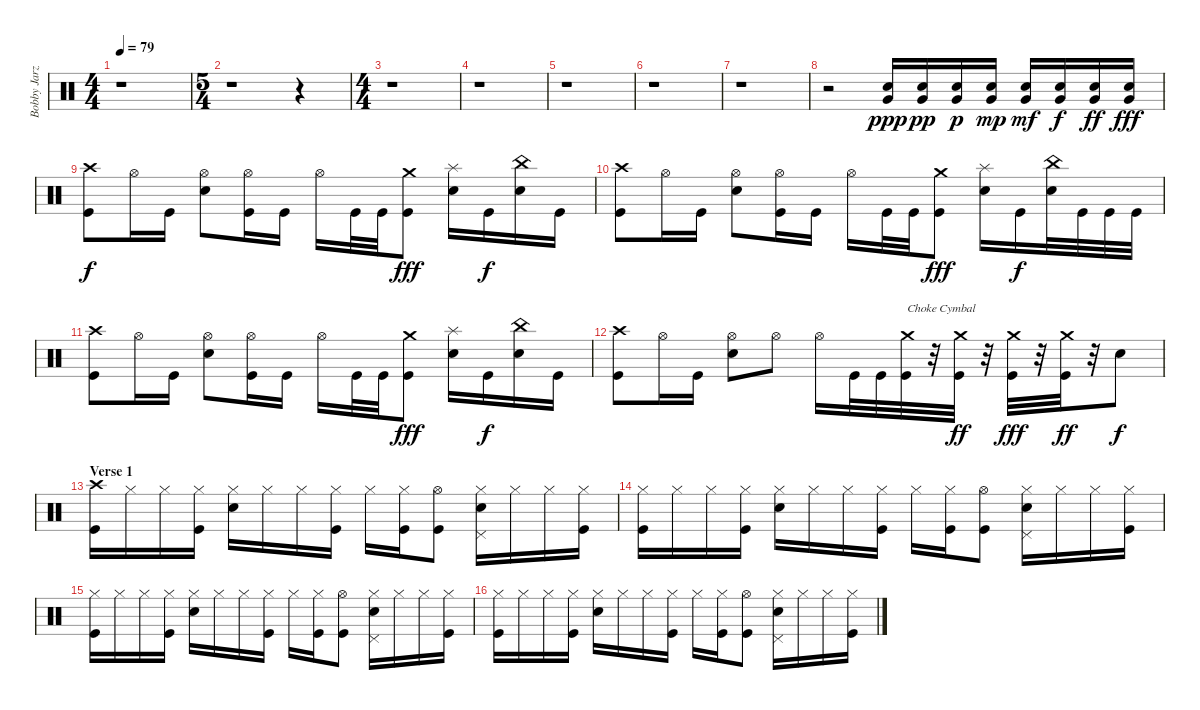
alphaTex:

\track ("Bobby Jarzombek" "Bobby Jarz") {instrument percussion}
\staff {score}
\articulation defaults
\ts (4 4)
\tempo 79
\clef neutral
\ks c
r.1{dy ppp} |
\ts (5 4)
r.1 r.4 |
\ts (4 4)
r.1 |
r.1 |
r.1 |
r.1 |
r.1 |
r.2 ("Very Low Tom (hit)" "Electric Snare (hit)").16 ("Very Low Tom (hit)" "Electric Snare (hit)").16{dy pp} ("Very Low Tom (hit)" "Electric Snare (hit)").16{dy p} ("Very Low Tom (hit)" "Electric Snare (hit)").16{dy mp} ("Very Low Tom (hit)" "Electric Snare (hit)").16{dy mf} ("Very Low Tom (hit)" "Electric Snare (hit)").16{dy f} ("Very Low Tom (hit)" "Electric Snare (hit)").16{dy ff} ("Very Low Tom (hit)" "Electric Snare (hit)").16{dy fff} |
("Crash high (hit)" "Kick (hit)").8{dy f} "Hi-Hat (open)".16 "Kick (hit)".16 ("Hi-Hat (open)" "Electric Snare (hit)").8 ("Hi-Hat (open)" "Kick (hit)").16 "Kick (hit)".16 "Hi-Hat (open)".16 "Kick (hit)".32 "Kick (hit)".32 ("Crash medium (hit)" "Kick (hit)").8{dy fff} ("Splash (hit)" "Electric Snare (hit)").16 "Kick (hit)".16{dy f} ("China (hit)" "Electric Snare (hit)").16 "Kick (hit)".16 |
("Crash high (hit)" "Kick (hit)").8 "Hi-Hat (open)".16 "Kick (hit)".16 ("Hi-Hat (open)" "Electric Snare (hit)").8 ("Hi-Hat (open)" "Kick (hit)").16 "Kick (hit)".16 "Hi-Hat (open)".16 "Kick (hit)".32 "Kick (hit)".32 ("Crash medium (hit)" "Kick (hit)").8{dy fff} ("Splash (hit)" "Electric Snare (hit)").16 "Kick (hit)".16{dy f} ("China (hit)" "Electric Snare (hit)").32 "Kick (hit)".32 "Kick (hit)".32 "Kick (hit)".32 |
("Crash high (hit)" "Kick (hit)").8 "Hi-Hat (open)".16 "Kick (hit)".16 ("Hi-Hat (open)" "Electric Snare (hit)").8 ("Hi-Hat (open)" "Kick (hit)").16 "Kick (hit)".16 "Hi-Hat (open)".16 "Kick (hit)".32 "Kick (hit)".32 ("Crash medium (hit)" "Kick (hit)").8{dy fff} ("Splash (hit)" "Electric Snare (hit)").16 "Kick (hit)".16{dy f} ("China (hit)" "Electric Snare (hit)").16 "Kick (hit)".16 |
("Crash high (hit)" "Kick (hit)").8 "Hi-Hat (open)".16 "Kick (hit)".16 ("Hi-Hat (open)" "Electric Snare (hit)").8 "Hi-Hat (open)".8 "Hi-Hat (open)".16 "Kick (hit)".32 "Kick (hit)".32 ("Crash medium (hit)" "Kick (hit)").32{txt "Choke Cymbal"} r.32{volume 0} ("Crash medium (hit)" "Kick (hit)").32{dy ff volume 13} r.32{volume 0} ("Crash medium (hit)" "Kick (hit)").32{dy fff volume 13} r.32{volume 0} ("Crash medium (hit)" "Kick (hit)").32{dy ff volume 13} r.32 "Electric Snare (hit)".8{dy f} |
\section ("" "Verse 1")
("Crash high (hit)" "Kick (hit)").16 "Hi-Hat (closed)".16 "Hi-Hat (closed)".16 ("Hi-Hat (closed)" "Kick (hit)").16 ("Hi-Hat (closed)" "Electric Snare (hit)").16 "Hi-Hat (closed)".16 "Hi-Hat (closed)".16 ("Hi-Hat (closed)" "Kick (hit)").16 "Hi-Hat (closed)".16 ("Hi-Hat (closed)" "Kick (hit)").16 ("Hi-Hat (open)" "Kick (hit)").8 ("Hi-Hat (closed)" "Electric Snare (hit)" "Pedal Hi-Hat (hit)").16 "Hi-Hat (closed)".16 "Hi-Hat (closed)".16 ("Hi-Hat (closed)" "Kick (hit)").16 |
("Hi-Hat (closed)" "Kick (hit)").16 "Hi-Hat (closed)".16 "Hi-Hat (closed)".16 ("Hi-Hat (closed)" "Kick (hit)").16 ("Hi-Hat (closed)" "Electric Snare (hit)").16 "Hi-Hat (closed)".16 "Hi-Hat (closed)".16 ("Hi-Hat (closed)" "Kick (hit)").16 "Hi-Hat (closed)".16 ("Hi-Hat (closed)" "Kick (hit)").16 ("Hi-Hat (open)" "Kick (hit)").8 ("Hi-Hat (closed)" "Electric Snare (hit)" "Pedal Hi-Hat (hit)").16 "Hi-Hat (closed)".16 "Hi-Hat (closed)".16 ("Hi-Hat (closed)" "Kick (hit)").16 |
("Hi-Hat (closed)" "Kick (hit)").16 "Hi-Hat (closed)".16 "Hi-Hat (closed)".16 ("Hi-Hat (closed)" "Kick (hit)").16 ("Hi-Hat (closed)" "Electric Snare (hit)").16 "Hi-Hat (closed)".16 "Hi-Hat (closed)".16 ("Hi-Hat (closed)" "Kick (hit)").16 "Hi-Hat (closed)".16 ("Hi-Hat (closed)" "Kick (hit)").16 ("Hi-Hat (open)" "Kick (hit)").8 ("Hi-Hat (closed)" "Electric Snare (hit)" "Pedal Hi-Hat (hit)").16 "Hi-Hat (closed)".16 "Hi-Hat (closed)".16 ("Hi-Hat (closed)" "Kick (hit)").16 |
("Hi-Hat (closed)" "Kick (hit)").16 "Hi-Hat (closed)".16 "Hi-Hat (closed)".16 ("Hi-Hat (closed)" "Kick (hit)").16 ("Hi-Hat (closed)" "Electric Snare (hit)").16 "Hi-Hat (closed)".16 "Hi-Hat (closed)".16 ("Hi-Hat (closed)" "Kick (hit)").16 "Hi-Hat (closed)".16 ("Hi-Hat (closed)" "Kick (hit)").16 ("Hi-Hat (open)" "Kick (hit)").8 ("Hi-Hat (closed)" "Electric Snare (hit)" "Pedal Hi-Hat (hit)").16 "Hi-Hat (closed)".16 "Hi-Hat (closed)".16 ("Hi-Hat (closed)" "Kick (hit)").16
